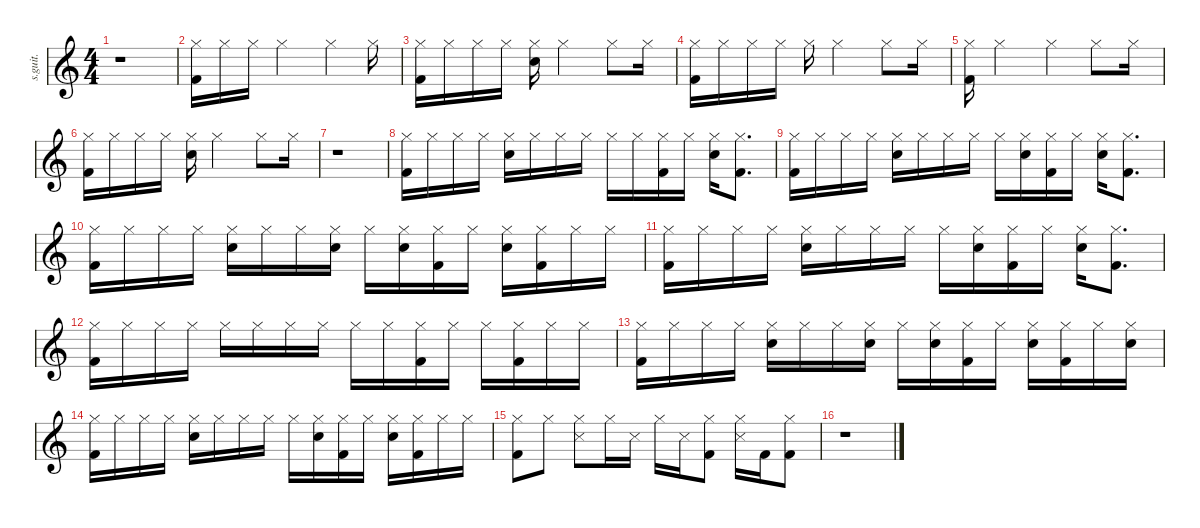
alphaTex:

\defaultSystemsLayout 4
\hideDynamics
\bracketExtendMode nobrackets
\track ("" "s.guit.") {instrument percussion}
\staff {score}
\articulation defaults
\ts (4 4)
\tempo (90 hide)
\clef g2
\ks c
r.1{dy f} |
("Hi-Hat (closed)" "Kick (hit) 2").16 "Hi-Hat (closed)".16 "Hi-Hat (closed)".16 "Hi-Hat (closed)".2 "Hi-Hat (closed)".4 "Hi-Hat (closed)".16 |
("Hi-Hat (closed)" "Kick (hit) 2").16 "Hi-Hat (closed)".16 "Hi-Hat (closed)".16 "Hi-Hat (closed)".16 ("Hi-Hat (closed)" "Snare (hit) 2").16 "Hi-Hat (closed)".2 "Hi-Hat (closed)".8 "Hi-Hat (closed)".16 |
("Hi-Hat (closed)" "Kick (hit) 2").16 "Hi-Hat (closed)".16 "Hi-Hat (closed)".16 "Hi-Hat (closed)".16 "Hi-Hat (closed)".16 "Hi-Hat (closed)".2 "Hi-Hat (closed)".8 "Hi-Hat (closed)".16 |
("Hi-Hat (closed)" "Kick (hit) 2").16 "Hi-Hat (closed)".2 "Hi-Hat (closed)".4 "Hi-Hat (closed)".8 "Hi-Hat (closed)".16 |
("Hi-Hat (closed)" "Kick (hit) 2").16 "Hi-Hat (closed)".16 "Hi-Hat (closed)".16 "Hi-Hat (closed)".16 ("Hi-Hat (closed)" "Snare (hit) 2").16 "Hi-Hat (closed)".2 "Hi-Hat (closed)".8 "Hi-Hat (closed)".16 |
r.1 |
("Hi-Hat (closed)" "Kick (hit) 2").16 "Hi-Hat (closed)".16 "Hi-Hat (closed)".16 "Hi-Hat (closed)".16 ("Hi-Hat (closed)" "Snare (hit) 2").16 "Hi-Hat (closed)".16 "Hi-Hat (closed)".16 "Hi-Hat (closed)".16 "Hi-Hat (closed)".16 "Hi-Hat (closed)".16 ("Hi-Hat (closed)" "Kick (hit) 2").16 "Hi-Hat (closed)".16 ("Hi-Hat (closed)" "Snare (hit) 2").16 ("Hi-Hat (closed)" "Kick (hit) 2").8{d} |
("Hi-Hat (closed)" "Kick (hit) 2").16 "Hi-Hat (closed)".16 "Hi-Hat (closed)".16 "Hi-Hat (closed)".16 ("Hi-Hat (closed)" "Snare (hit) 2").16 "Hi-Hat (closed)".16 "Hi-Hat (closed)".16 "Hi-Hat (closed)".16 "Hi-Hat (closed)".16 ("Hi-Hat (closed)" "Snare (hit) 2").16 ("Hi-Hat (closed)" "Kick (hit) 2").16 "Hi-Hat (closed)".16 ("Hi-Hat (closed)" "Snare (hit) 2").16 ("Hi-Hat (closed)" "Kick (hit) 2").8{d} |
("Hi-Hat (closed)" "Kick (hit) 2").16 "Hi-Hat (closed)".16 "Hi-Hat (closed)".16 "Hi-Hat (closed)".16 ("Hi-Hat (closed)" "Snare (hit) 2").16 "Hi-Hat (closed)".16 "Hi-Hat (closed)".16 ("Hi-Hat (closed)" "Snare (hit) 2").16 "Hi-Hat (closed)".16 ("Hi-Hat (closed)" "Snare (hit) 2").16 ("Hi-Hat (closed)" "Kick (hit) 2").16 "Hi-Hat (closed)".16 ("Hi-Hat (closed)" "Snare (hit) 2").16 ("Hi-Hat (closed)" "Kick (hit) 2").16 "Hi-Hat (closed)".16 "Hi-Hat (closed)".16 |
("Hi-Hat (closed)" "Kick (hit) 2").16 "Hi-Hat (closed)".16 "Hi-Hat (closed)".16 "Hi-Hat (closed)".16 ("Hi-Hat (closed)" "Snare (hit) 2").16 "Hi-Hat (closed)".16 "Hi-Hat (closed)".16 "Hi-Hat (closed)".16 "Hi-Hat (closed)".16 ("Hi-Hat (closed)" "Snare (hit) 2").16 ("Hi-Hat (closed)" "Kick (hit) 2").16 "Hi-Hat (closed)".16 ("Hi-Hat (closed)" "Snare (hit) 2").16 ("Hi-Hat (closed)" "Kick (hit) 2").8{d} |
("Hi-Hat (closed)" "Kick (hit) 2").16 "Hi-Hat (closed)".16 "Hi-Hat (closed)".16 "Hi-Hat (closed)".16 "Hi-Hat (closed)".16 "Hi-Hat (closed)".16 "Hi-Hat (closed)".16 "Hi-Hat (closed)".16 "Hi-Hat (closed)".16 "Hi-Hat (closed)".16 ("Hi-Hat (closed)" "Kick (hit) 2").16 "Hi-Hat (closed)".16 "Hi-Hat (closed)".16 ("Hi-Hat (closed)" "Kick (hit) 2").16 "Hi-Hat (closed)".16 "Hi-Hat (closed)".16 |
("Hi-Hat (closed)" "Kick (hit) 2").16 "Hi-Hat (closed)".16 "Hi-Hat (closed)".16 "Hi-Hat (closed)".16 ("Hi-Hat (closed)" "Snare (hit) 2").16 "Hi-Hat (closed)".16 "Hi-Hat (closed)".16 ("Hi-Hat (closed)" "Snare (hit) 2").16 "Hi-Hat (closed)".16 ("Hi-Hat (closed)" "Snare (hit) 2").16 ("Hi-Hat (closed)" "Kick (hit) 2").16 "Hi-Hat (closed)".16 ("Hi-Hat (closed)" "Snare (hit) 2").16 ("Hi-Hat (closed)" "Kick (hit) 2").16 "Hi-Hat (closed)".16 ("Hi-Hat (closed)" "Snare (hit) 2").16 |
("Hi-Hat (closed)" "Kick (hit) 2").16 "Hi-Hat (closed)".16 "Hi-Hat (closed)".16 "Hi-Hat (closed)".16 ("Hi-Hat (closed)" "Snare (hit) 2").16 "Hi-Hat (closed)".16 "Hi-Hat (closed)".16 "Hi-Hat (closed)".16 "Hi-Hat (closed)".16 ("Hi-Hat (closed)" "Snare (hit) 2").16 ("Hi-Hat (closed)" "Kick (hit) 2").16 "Hi-Hat (closed)".16 ("Hi-Hat (closed)" "Snare (hit) 2").16 ("Hi-Hat (closed)" "Kick (hit) 2").16 "Hi-Hat (closed)".16 "Hi-Hat (closed)".16 |
("Hi-Hat (closed)" "Kick (hit) 2").8 "Hi-Hat (closed)".8 ("Hi-Hat (closed)" "Snare (side stick) 3").8 "Hi-Hat (closed)".16 "Snare (side stick) 3".16 "Hi-Hat (closed)".16 "Snare (side stick) 3".16 ("Hi-Hat (closed)" "Kick (hit) 2").8 ("Hi-Hat (closed)" "Snare (side stick) 3").16 "Kick (hit) 2".16 ("Hi-Hat (closed)" "Kick (hit) 2").8 |
r.1
